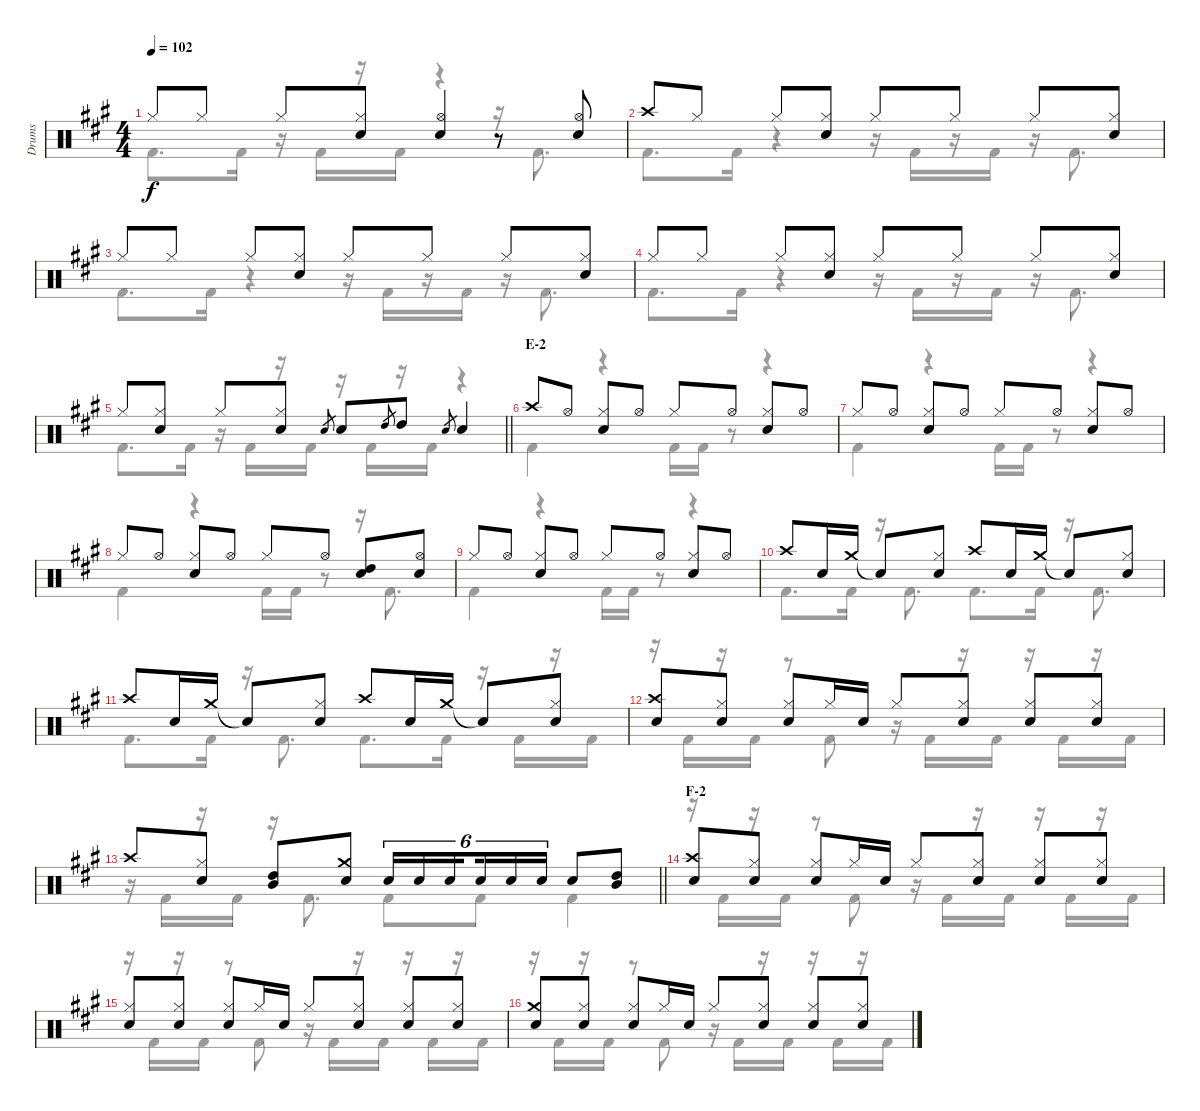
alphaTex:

\track ("Drums" "Drums") {instrument percussion}
\staff {score}
\articulation defaults
\voice
\ts (4 4)
\tempo 102
\clef neutral
\ks a "Hi-Hat (closed)".8{dy f} "Hi-Hat (closed)".8 "Hi-Hat (closed)".8
("Hi-Hat (closed)" "Snare (hit) 2").8 ("Hi-Hat (open)" "Snare (hit) 2").4 r.8 ("Hi-Hat (open)" "Snare (hit) 2").8 |
"Crash high (hit)".8 "Hi-Hat (closed)".8 "Hi-Hat (closed)".8 ("Hi-Hat (closed)" "Snare (hit) 2").8 "Hi-Hat (closed)".8 "Hi-Hat (closed)".8 "Hi-Hat (closed)".8 ("Hi-Hat (closed)" "Snare (hit) 2").8 |
"Hi-Hat (closed)".8 "Hi-Hat (closed)".8 "Hi-Hat (closed)".8 ("Hi-Hat (closed)" "Snare (hit) 2").8 "Hi-Hat (closed)".8 "Hi-Hat (closed)".8 "Hi-Hat (closed)".8 ("Hi-Hat (closed)" "Snare (hit) 2").8 |
"Hi-Hat (closed)".8 "Hi-Hat (closed)".8 "Hi-Hat (closed)".8 ("Hi-Hat (closed)" "Snare (hit) 2").8 "Hi-Hat (closed)".8 "Hi-Hat (closed)".8 "Hi-Hat (closed)".8 ("Hi-Hat (closed)" "Snare (hit) 2").8 |
\barLineRight lightlight "Hi-Hat (closed)".8
("Hi-Hat (closed)" "Snare (hit) 2").8 "Hi-Hat (closed)".8 ("Hi-Hat (closed)" "Snare (hit) 2").8 "Snare (hit) 2".8{gr} "Snare (hit) 2".8 "High Tom (hit)".8{gr} "High Tom (hit)".8 "Snare (hit) 2".8{gr} "Snare (hit) 2".4 |
\section ("" "E-2")
"Crash high (hit)".8 "Hi-Hat (open)".8 ("Hi-Hat (closed)" "Snare (hit) 2").8 "Hi-Hat (open)".8 "Hi-Hat (closed)".8 "Hi-Hat (open)".8 ("Hi-Hat (closed)" "Snare (hit) 2").8 "Hi-Hat (open)".8 |
"Hi-Hat (closed)".8 "Hi-Hat (open)".8 ("Hi-Hat (closed)" "Snare (hit) 2").8 "Hi-Hat (open)".8 "Hi-Hat (closed)".8 "Hi-Hat (open)".8 ("Hi-Hat (closed)" "Snare (hit) 2").8 "Hi-Hat (open)".8 |
"Hi-Hat (closed)".8 "Hi-Hat (open)".8 ("Hi-Hat (closed)" "Snare (hit) 2").8 "Hi-Hat (open)".8 "Hi-Hat (closed)".8 "Hi-Hat (open)".8 ("High Tom (hit)" "Snare (hit) 2").8 ("Hi-Hat (open)" "Snare (hit) 2").8 |
"Hi-Hat (closed)".8 "Hi-Hat (open)".8 ("Hi-Hat (closed)" "Snare (hit) 2").8 "Hi-Hat (open)".8 "Hi-Hat (closed)".8 "Hi-Hat (open)".8 ("Hi-Hat (closed)" "Snare (hit) 2").8 "Hi-Hat (open)".8 |
"Crash high (hit)".8 "Snare (hit) 2".16 "Crash medium (hit)".16 "Snare (hit)"{t}.8 ("Hi-Hat (closed)" "Snare (hit) 2").8 "Crash high (hit)".8 "Snare (hit) 2".16 "Crash medium (hit)".16 "Snare (hit)"{t}.8 ("Hi-Hat (closed)" "Snare (hit) 2").8 |
"Crash high (hit)".8 "Snare (hit) 2".16 "Crash medium (hit)".16 "Snare (hit)"{t}.8 ("Hi-Hat (closed)" "Snare (hit) 2").8 "Crash high (hit)".8 "Snare (hit) 2".16 "Crash medium (hit)".16 "Snare (hit)"{t}.8 ("Hi-Hat (closed)" "Snare (hit) 2").8 |
("Crash high (hit)" "Snare (hit) 2").8 ("Hi-Hat (closed)" "Snare (hit) 2").8 ("Hi-Hat (closed)" "Snare (hit) 2").8 "Hi-Hat (closed)".16 "Snare (hit) 2".16 "Hi-Hat (closed)".8 ("Hi-Hat (closed)" "Snare (hit) 2").8 ("Hi-Hat (closed)" "Snare (hit) 2").8 ("Hi-Hat (closed)" "Snare (hit) 2").8 |
\barLineRight lightlight "Crash high (hit)".8
("Hi-Hat (closed)" "Snare (hit) 2").8 ("High Tom (hit)" "Mid Tom (hit)").8 ("Crash medium (hit)" "Snare (hit) 2").8 "Snare (hit) 2".16{tu (6 4)} "Snare (hit) 2".16{tu (6 4)} "Snare (hit) 2".16{tu (6 4) beam splitsecondary} "Snare (hit) 2".16{tu (6 4)} "Snare (hit) 2".16{tu (6 4)} "Snare (hit) 2".16{tu (6 4)} "Snare (hit) 2".8 ("High Tom (hit)" "Mid Tom (hit)").8 |
\section ("" "F-2")
("Crash high (hit)" "Snare (hit) 2").8 ("Hi-Hat (closed)" "Snare (hit) 2").8 ("Hi-Hat (closed)" "Snare (hit) 2").8 "Hi-Hat (closed)".16 "Snare (hit) 2".16 "Hi-Hat (closed)".8 ("Hi-Hat (closed)" "Snare (hit) 2").8 ("Hi-Hat (closed)" "Snare (hit) 2").8 ("Hi-Hat (closed)" "Snare (hit) 2").8 |
("Hi-Hat (closed)" "Snare (hit) 2").8 ("Hi-Hat (closed)" "Snare (hit) 2").8 ("Hi-Hat (closed)" "Snare (hit) 2").8 "Hi-Hat (closed)".16 "Snare (hit) 2".16 "Hi-Hat (closed)".8 ("Hi-Hat (closed)" "Snare (hit) 2").8 ("Hi-Hat (closed)" "Snare (hit) 2").8 ("Hi-Hat (closed)" "Snare (hit) 2").8 |
("Crash medium (hit)" "Snare (hit) 2").8 ("Hi-Hat (closed)" "Snare (hit) 2").8 ("Hi-Hat (closed)" "Snare (hit) 2").8 "Hi-Hat (closed)".16 "Snare (hit) 2".16 "Hi-Hat (closed)".8 ("Hi-Hat (closed)" "Snare (hit) 2").8 ("Hi-Hat (closed)" "Snare (hit) 2").8 ("Hi-Hat (closed)" "Snare (hit) 2").8
\voice
\clef neutral
\ottava regular
\simile none
\ks a "Kick (hit) 2".8{d dy f} "Kick (hit) 2".16
r.16 "Kick (hit) 2".16 r.16 "Kick (hit) 2".16 r.4 r.16 "Kick (hit) 2".8{d} |
"Kick (hit) 2".8{d} "Kick (hit) 2".16 r.4 r.16 "Kick (hit) 2".16 r.16 "Kick (hit) 2".16 r.16 "Kick (hit) 2".8{d} |
"Kick (hit) 2".8{d} "Kick (hit) 2".16 r.4 r.16 "Kick (hit) 2".16 r.16 "Kick (hit) 2".16 r.16 "Kick (hit) 2".8{d} |
"Kick (hit) 2".8{d} "Kick (hit) 2".16 r.4 r.16 "Kick (hit) 2".16 r.16 "Kick (hit) 2".16 r.16 "Kick (hit) 2".8{d} |
\barLineRight lightlight "Kick (hit) 2".8{d} "Kick (hit) 2".16
r.16 "Kick (hit) 2".16 r.16 "Kick (hit) 2".16 r.16 "Kick (hit) 2".16 r.16 "Kick (hit) 2".16 r.4 |
"Kick (hit) 2".4 r.4 "Kick (hit) 2".16 "Kick (hit) 2".16 r.8 r.4 |
"Kick (hit) 2".4 r.4 "Kick (hit) 2".16 "Kick (hit) 2".16 r.8 r.4 |
"Kick (hit) 2".4 r.4 "Kick (hit) 2".16 "Kick (hit) 2".16 r.8 r.16 "Kick (hit) 2".8{d} |
"Kick (hit) 2".4 r.4 "Kick (hit) 2".16 "Kick (hit) 2".16 r.8 r.4 |
"Kick (hit) 2".8{d} "Kick (hit) 2".16 r.16 "Kick (hit) 2".8{d} "Kick (hit) 2".8{d} "Kick (hit) 2".16 r.16 "Kick (hit) 2".8{d} |
"Kick (hit) 2".8{d} "Kick (hit) 2".16 r.16 "Kick (hit) 2".8{d} "Kick (hit) 2".8{d} "Kick (hit) 2".16 r.16 "Kick (hit) 2".16 r.16 "Kick (hit) 2".16 |
r.16 "Kick (hit) 2".16 r.16 "Kick (hit) 2".16 r.8 "Kick (hit) 2".8 r.16 "Kick (hit) 2".16 r.16 "Kick (hit) 2".16 r.16 "Kick (hit) 2".16 r.16 "Kick (hit) 2".16 |
\barLineRight lightlight
r.16 "Kick (hit) 2".16 r.16 "Kick (hit) 2".16 r.16 "Kick (hit) 2".8{d} "Kick (hit) 2".8 "Kick (hit) 2".8 "Kick (hit) 2".4 |
r.16 "Kick (hit) 2".16 r.16 "Kick (hit) 2".16 r.8 "Kick (hit) 2".8 r.16 "Kick (hit) 2".16 r.16 "Kick (hit) 2".16 r.16 "Kick (hit) 2".16 r.16 "Kick (hit) 2".16 |
r.16 "Kick (hit) 2".16 r.16 "Kick (hit) 2".16 r.8 "Kick (hit) 2".8 r.16 "Kick (hit) 2".16 r.16 "Kick (hit) 2".16 r.16 "Kick (hit) 2".16 r.16 "Kick (hit) 2".16 |
r.16 "Kick (hit) 2".16 r.16 "Kick (hit) 2".16 r.8 "Kick (hit) 2".8 r.16 "Kick (hit) 2".16 r.16 "Kick (hit) 2".16 r.16 "Kick (hit) 2".16 r.16 "Kick (hit) 2".16
